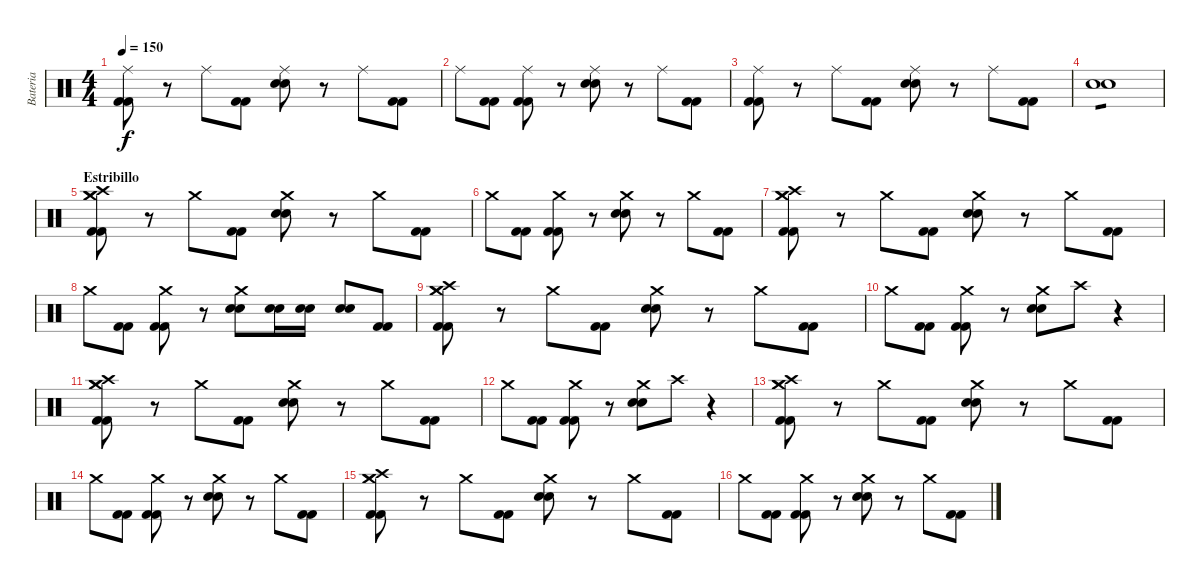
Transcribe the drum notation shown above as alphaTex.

\track ("Bateria" "Bateria") {instrument percussion}
\staff {score}
\articulation defaults
\ts (4 4)
\tempo 150
\clef neutral
\ks c
("Ride (middle)" "Kick (hit) 2" "Kick (hit) 2").8{dy f} r.8 "Ride (middle)".8 ("Kick (hit) 2" "Kick (hit) 2").8 ("Ride (middle)" "Electric Snare (hit)" "Electric Snare (hit)").8 r.8 "Ride (middle)".8 ("Kick (hit) 2" "Kick (hit) 2").8 |
"Ride (middle)".8 ("Kick (hit) 2" "Kick (hit) 2").8 ("Ride (middle)" "Kick (hit) 2" "Kick (hit) 2").8 r.8 ("Ride (middle)" "Electric Snare (hit)" "Electric Snare (hit)").8 r.8 "Ride (middle)".8 ("Kick (hit) 2" "Kick (hit) 2").8 |
("Ride (middle)" "Kick (hit) 2" "Kick (hit) 2").8 r.8 "Ride (middle)".8 ("Kick (hit) 2" "Kick (hit) 2").8 ("Ride (middle)" "Electric Snare (hit)" "Electric Snare (hit)").8 r.8 "Ride (middle)".8 ("Kick (hit) 2" "Kick (hit) 2").8 |
("Electric Snare (hit)" "Electric Snare (hit)").1{tp 1} |
\section ("" "Estribillo")
("Crash medium (hit)" "Crash high (hit)" "Crash medium (hit)" "Kick (hit) 2" "Kick (hit) 2").8 r.8 "Crash medium (hit)".8 ("Kick (hit) 2" "Kick (hit) 2").8 ("Crash medium (hit)" "Electric Snare (hit)" "Electric Snare (hit)").8 r.8 "Crash medium (hit)".8 ("Kick (hit) 2" "Kick (hit) 2").8 |
"Crash medium (hit)".8 ("Kick (hit) 2" "Kick (hit) 2").8 ("Crash medium (hit)" "Kick (hit) 2" "Kick (hit) 2").8 r.8 ("Crash medium (hit)" "Electric Snare (hit)" "Electric Snare (hit)").8 r.8 "Crash medium (hit)".8 ("Kick (hit) 2" "Kick (hit) 2").8 |
("Crash medium (hit)" "Crash high (hit)" "Crash medium (hit)" "Kick (hit) 2" "Kick (hit) 2").8 r.8 "Crash medium (hit)".8 ("Kick (hit) 2" "Kick (hit) 2").8 ("Crash medium (hit)" "Electric Snare (hit)" "Electric Snare (hit)").8 r.8 "Crash medium (hit)".8 ("Kick (hit) 2" "Kick (hit) 2").8 |
"Crash medium (hit)".8 ("Kick (hit) 2" "Kick (hit) 2").8 ("Crash medium (hit)" "Kick (hit) 2" "Kick (hit) 2").8 r.8 ("Crash medium (hit)" "Electric Snare (hit)" "Electric Snare (hit)").8 ("Electric Snare (hit)" "Electric Snare (hit)").16 ("Electric Snare (hit)" "Electric Snare (hit)").16 ("Electric Snare (hit)" "Electric Snare (hit)").8 ("Kick (hit) 2" "Kick (hit) 2").8 |
("Crash medium (hit)" "Crash high (hit)" "Crash medium (hit)" "Kick (hit) 2" "Kick (hit) 2").8 r.8 "Crash medium (hit)".8 ("Kick (hit) 2" "Kick (hit) 2").8 ("Crash medium (hit)" "Electric Snare (hit)" "Electric Snare (hit)").8 r.8 "Crash medium (hit)".8 ("Kick (hit) 2" "Kick (hit) 2").8 |
"Crash medium (hit)".8 ("Kick (hit) 2" "Kick (hit) 2").8 ("Crash medium (hit)" "Kick (hit) 2" "Kick (hit) 2").8 r.8 ("Crash medium (hit)" "Electric Snare (hit)" "Electric Snare (hit)").8 "Crash high (hit)".8 r.4 |
("Crash medium (hit)" "Crash high (hit)" "Crash medium (hit)" "Kick (hit) 2" "Kick (hit) 2").8 r.8 "Crash medium (hit)".8 ("Kick (hit) 2" "Kick (hit) 2").8 ("Crash medium (hit)" "Electric Snare (hit)" "Electric Snare (hit)").8 r.8 "Crash medium (hit)".8 ("Kick (hit) 2" "Kick (hit) 2").8 |
"Crash medium (hit)".8 ("Kick (hit) 2" "Kick (hit) 2").8 ("Crash medium (hit)" "Kick (hit) 2" "Kick (hit) 2").8 r.8 ("Crash medium (hit)" "Electric Snare (hit)" "Electric Snare (hit)").8 "Crash high (hit)".8 r.4 |
("Crash medium (hit)" "Crash high (hit)" "Crash medium (hit)" "Kick (hit) 2" "Kick (hit) 2").8 r.8 "Crash medium (hit)".8 ("Kick (hit) 2" "Kick (hit) 2").8 ("Crash medium (hit)" "Electric Snare (hit)" "Electric Snare (hit)").8 r.8 "Crash medium (hit)".8 ("Kick (hit) 2" "Kick (hit) 2").8 |
"Crash medium (hit)".8 ("Kick (hit) 2" "Kick (hit) 2").8 ("Crash medium (hit)" "Kick (hit) 2" "Kick (hit) 2").8 r.8 ("Crash medium (hit)" "Electric Snare (hit)" "Electric Snare (hit)").8 r.8 "Crash medium (hit)".8 ("Kick (hit) 2" "Kick (hit) 2").8 |
("Crash medium (hit)" "Crash high (hit)" "Crash medium (hit)" "Kick (hit) 2" "Kick (hit) 2").8 r.8 "Crash medium (hit)".8 ("Kick (hit) 2" "Kick (hit) 2").8 ("Crash medium (hit)" "Electric Snare (hit)" "Electric Snare (hit)").8 r.8 "Crash medium (hit)".8 ("Kick (hit) 2" "Kick (hit) 2").8 |
"Crash medium (hit)".8 ("Kick (hit) 2" "Kick (hit) 2").8 ("Crash medium (hit)" "Kick (hit) 2" "Kick (hit) 2").8 r.8 ("Crash medium (hit)" "Electric Snare (hit)" "Electric Snare (hit)").8 r.8 "Crash medium (hit)".8 ("Kick (hit) 2" "Kick (hit) 2").8
